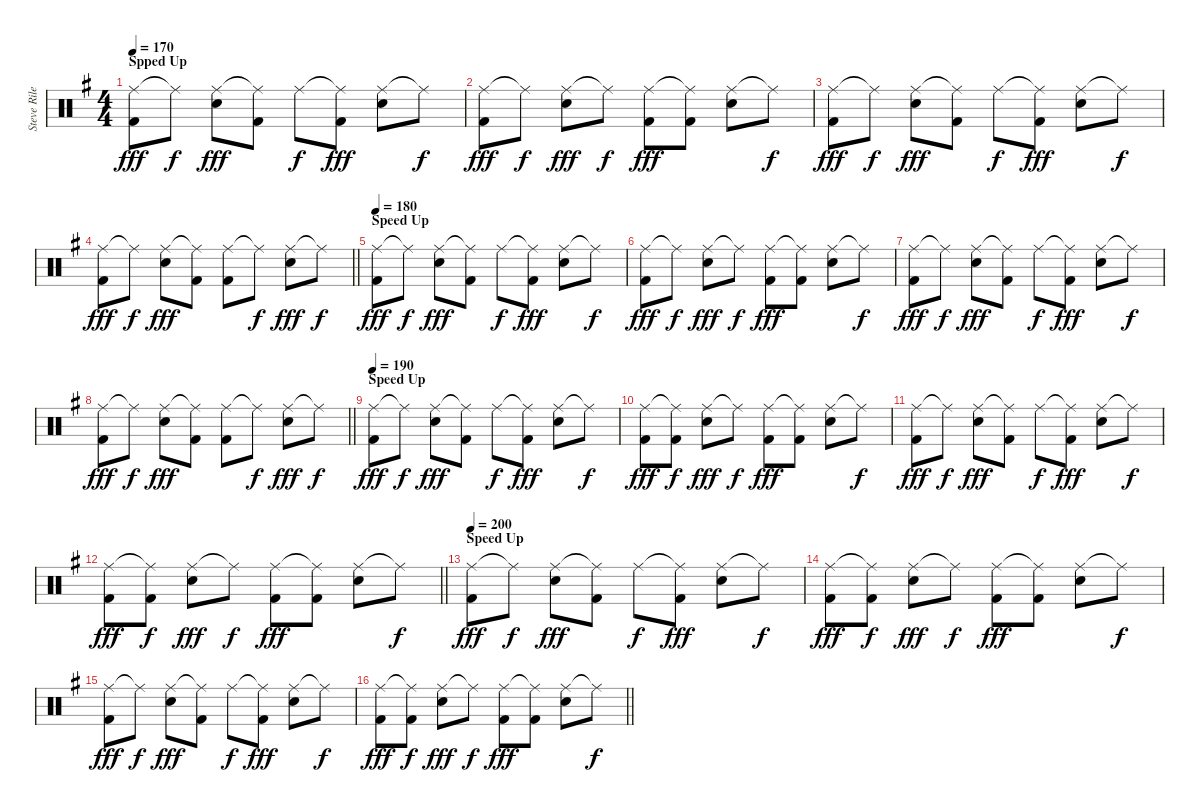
\track ("Steve Riley - Drums" "Steve Rile") {instrument percussion}
\staff {score}
\articulation defaults
\ts (4 4)
\section ("" "Spped Up")
\tempo 170
\clef neutral
\ks g
("Ride (middle)" "Kick (hit) 2").8{dy fff} "Ride (middle)"{t}.8{dy f} ("Ride (middle)" "Electric Snare (hit)").8{dy fff} ("Ride (middle)"{t} "Kick (hit) 2").8 "Ride (middle)".8{dy f} ("Ride (middle)"{t} "Kick (hit) 2").8{dy fff} ("Ride (middle)" "Electric Snare (hit)").8 "Ride (middle)"{t}.8{dy f} |
("Ride (middle)" "Kick (hit) 2").8{dy fff} "Ride (middle)"{t}.8{dy f} ("Ride (middle)" "Electric Snare (hit)").8{dy fff} "Ride (middle)"{t}.8{dy f} ("Ride (middle)" "Kick (hit) 2").8{dy fff} ("Ride (middle)"{t} "Kick (hit) 2").8 ("Ride (middle)" "Electric Snare (hit)").8 "Ride (middle)"{t}.8{dy f} |
("Ride (middle)" "Kick (hit) 2").8{dy fff} "Ride (middle)"{t}.8{dy f} ("Ride (middle)" "Electric Snare (hit)").8{dy fff} ("Ride (middle)"{t} "Kick (hit) 2").8 "Ride (middle)".8{dy f} ("Ride (middle)"{t} "Kick (hit) 2").8{dy fff} ("Ride (middle)" "Electric Snare (hit)").8 "Ride (middle)"{t}.8{dy f} |
\barLineRight lightlight
("Ride (middle)" "Kick (hit) 2").8{dy fff} "Ride (middle)"{t}.8{dy f} ("Ride (middle)" "Electric Snare (hit)").8{dy fff} ("Ride (middle)"{t} "Kick (hit) 2").8 ("Ride (middle)" "Kick (hit) 2").8 "Ride (middle)"{t}.8{dy f} ("Ride (middle)" "Electric Snare (hit)").8{dy fff} "Ride (middle)"{t}.8{dy f} |
\section ("" "Speed Up")
\tempo 180
("Ride (middle)" "Kick (hit) 2").8{dy fff} "Ride (middle)"{t}.8{dy f} ("Ride (middle)" "Electric Snare (hit)").8{dy fff} ("Ride (middle)"{t} "Kick (hit) 2").8 "Ride (middle)".8{dy f} ("Ride (middle)"{t} "Kick (hit) 2").8{dy fff} ("Ride (middle)" "Electric Snare (hit)").8 "Ride (middle)"{t}.8{dy f} |
("Ride (middle)" "Kick (hit) 2").8{dy fff} "Ride (middle)"{t}.8{dy f} ("Ride (middle)" "Electric Snare (hit)").8{dy fff} "Ride (middle)"{t}.8{dy f} ("Ride (middle)" "Kick (hit) 2").8{dy fff} ("Ride (middle)"{t} "Kick (hit) 2").8 ("Ride (middle)" "Electric Snare (hit)").8 "Ride (middle)"{t}.8{dy f} |
("Ride (middle)" "Kick (hit) 2").8{dy fff} "Ride (middle)"{t}.8{dy f} ("Ride (middle)" "Electric Snare (hit)").8{dy fff} ("Ride (middle)"{t} "Kick (hit) 2").8 "Ride (middle)".8{dy f} ("Ride (middle)"{t} "Kick (hit) 2").8{dy fff} ("Ride (middle)" "Electric Snare (hit)").8 "Ride (middle)"{t}.8{dy f} |
\barLineRight lightlight
("Ride (middle)" "Kick (hit) 2").8{dy fff} "Ride (middle)"{t}.8{dy f} ("Ride (middle)" "Electric Snare (hit)").8{dy fff} ("Ride (middle)"{t} "Kick (hit) 2").8 ("Ride (middle)" "Kick (hit) 2").8 "Ride (middle)"{t}.8{dy f} ("Ride (middle)" "Electric Snare (hit)").8{dy fff} "Ride (middle)"{t}.8{dy f} |
\section ("" "Speed Up")
\tempo 190
("Ride (middle)" "Kick (hit) 2").8{dy fff} "Ride (middle)"{t}.8{dy f} ("Ride (middle)" "Electric Snare (hit)").8{dy fff} ("Ride (middle)"{t} "Kick (hit) 2").8 "Ride (middle)".8{dy f} ("Ride (middle)"{t} "Kick (hit) 2").8{dy fff} ("Ride (middle)" "Electric Snare (hit)").8 "Ride (middle)"{t}.8{dy f} |
("Ride (middle)" "Kick (hit) 2").8{dy fff} ("Ride (middle)"{t} "Kick (hit) 2").8{dy f} ("Ride (middle)" "Electric Snare (hit)").8{dy fff} "Ride (middle)"{t}.8{dy f} ("Ride (middle)" "Kick (hit) 2").8{dy fff} ("Ride (middle)"{t} "Kick (hit) 2").8 ("Ride (middle)" "Electric Snare (hit)").8 "Ride (middle)"{t}.8{dy f} |
("Ride (middle)" "Kick (hit) 2").8{dy fff} "Ride (middle)"{t}.8{dy f} ("Ride (middle)" "Electric Snare (hit)").8{dy fff} ("Ride (middle)"{t} "Kick (hit) 2").8 "Ride (middle)".8{dy f} ("Ride (middle)"{t} "Kick (hit) 2").8{dy fff} ("Ride (middle)" "Electric Snare (hit)").8 "Ride (middle)"{t}.8{dy f} |
\barLineRight lightlight
("Ride (middle)" "Kick (hit) 2").8{dy fff} ("Ride (middle)"{t} "Kick (hit) 2").8{dy f} ("Ride (middle)" "Electric Snare (hit)").8{dy fff} "Ride (middle)"{t}.8{dy f} ("Ride (middle)" "Kick (hit) 2").8{dy fff} ("Ride (middle)"{t} "Kick (hit) 2").8 ("Ride (middle)" "Electric Snare (hit)").8 "Ride (middle)"{t}.8{dy f} |
\section ("" "Speed Up")
\tempo 200
("Ride (middle)" "Kick (hit) 2").8{dy fff} "Ride (middle)"{t}.8{dy f} ("Ride (middle)" "Electric Snare (hit)").8{dy fff} ("Ride (middle)"{t} "Kick (hit) 2").8 "Ride (middle)".8{dy f} ("Ride (middle)"{t} "Kick (hit) 2").8{dy fff} ("Ride (middle)" "Electric Snare (hit)").8 "Ride (middle)"{t}.8{dy f} |
("Ride (middle)" "Kick (hit) 2").8{dy fff} ("Ride (middle)"{t} "Kick (hit) 2").8{dy f} ("Ride (middle)" "Electric Snare (hit)").8{dy fff} "Ride (middle)"{t}.8{dy f} ("Ride (middle)" "Kick (hit) 2").8{dy fff} ("Ride (middle)"{t} "Kick (hit) 2").8 ("Ride (middle)" "Electric Snare (hit)").8 "Ride (middle)"{t}.8{dy f} |
("Ride (middle)" "Kick (hit) 2").8{dy fff} "Ride (middle)"{t}.8{dy f} ("Ride (middle)" "Electric Snare (hit)").8{dy fff} ("Ride (middle)"{t} "Kick (hit) 2").8 "Ride (middle)".8{dy f} ("Ride (middle)"{t} "Kick (hit) 2").8{dy fff} ("Ride (middle)" "Electric Snare (hit)").8 "Ride (middle)"{t}.8{dy f} |
\barLineRight lightlight
("Ride (middle)" "Kick (hit) 2").8{dy fff} ("Ride (middle)"{t} "Kick (hit) 2").8{dy f} ("Ride (middle)" "Electric Snare (hit)").8{dy fff} "Ride (middle)"{t}.8{dy f} ("Ride (middle)" "Kick (hit) 2").8{dy fff} ("Ride (middle)"{t} "Kick (hit) 2").8 ("Ride (middle)" "Electric Snare (hit)").8 "Ride (middle)"{t}.8{dy f}
